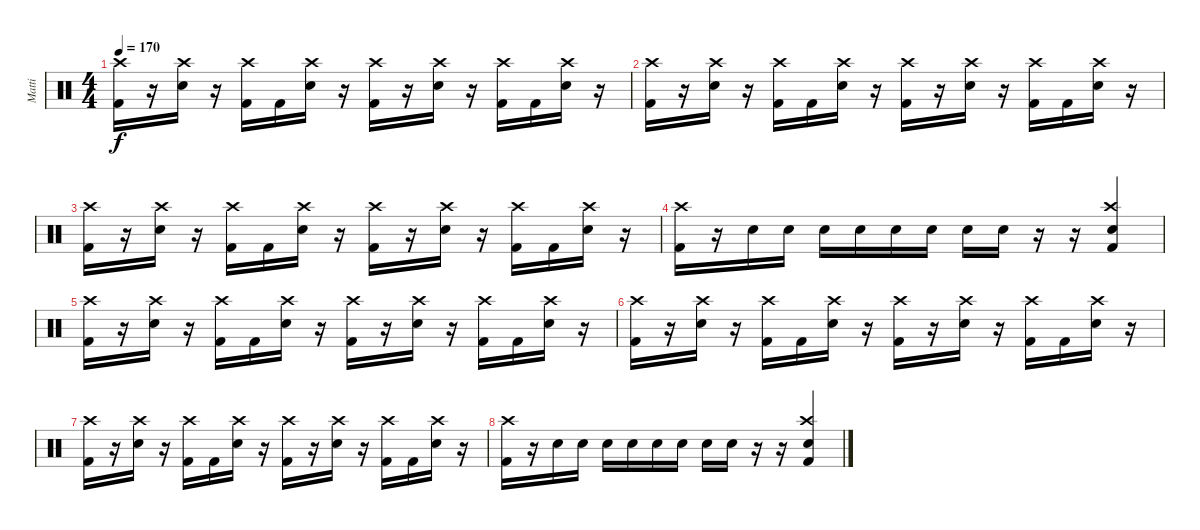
\track ("Matti" "Matti") {instrument percussion}
\staff {score}
\articulation defaults
\ts (4 4)
\tempo 170
\clef neutral
\ks c
("Kick (hit) 2" "Crash high (hit)").16{dy f} r.16 ("Snare (hit) 2" "Crash high (hit)").16 r.16 ("Kick (hit) 2" "Crash high (hit)").16 "Kick (hit) 2".16 ("Snare (hit) 2" "Crash high (hit)").16 r.16 ("Kick (hit) 2" "Crash high (hit)").16 r.16 ("Snare (hit) 2" "Crash high (hit)").16 r.16 ("Kick (hit) 2" "Crash high (hit)").16 "Kick (hit) 2".16 ("Snare (hit) 2" "Crash high (hit)").16 r.16 |
("Kick (hit) 2" "Crash high (hit)").16 r.16 ("Snare (hit) 2" "Crash high (hit)").16 r.16 ("Kick (hit) 2" "Crash high (hit)").16 "Kick (hit) 2".16 ("Snare (hit) 2" "Crash high (hit)").16 r.16 ("Kick (hit) 2" "Crash high (hit)").16 r.16 ("Snare (hit) 2" "Crash high (hit)").16 r.16 ("Kick (hit) 2" "Crash high (hit)").16 "Kick (hit) 2".16 ("Snare (hit) 2" "Crash high (hit)").16 r.16 |
("Kick (hit) 2" "Crash high (hit)").16 r.16 ("Snare (hit) 2" "Crash high (hit)").16 r.16 ("Kick (hit) 2" "Crash high (hit)").16 "Kick (hit) 2".16 ("Snare (hit) 2" "Crash high (hit)").16 r.16 ("Kick (hit) 2" "Crash high (hit)").16 r.16 ("Snare (hit) 2" "Crash high (hit)").16 r.16 ("Kick (hit) 2" "Crash high (hit)").16 "Kick (hit) 2".16 ("Snare (hit) 2" "Crash high (hit)").16 r.16 |
("Kick (hit) 2" "Crash high (hit)").16 r.16 "Snare (hit) 2".16 "Snare (hit) 2".16 "Snare (hit) 2".16 "Snare (hit) 2".16 "Snare (hit) 2".16 "Snare (hit) 2".16 "Snare (hit) 2".16 "Snare (hit) 2".16 r.16 r.16 ("Crash high (hit)" "Kick (hit) 2" "Snare (hit) 2").4 |
("Kick (hit) 2" "Crash high (hit)").16 r.16 ("Snare (hit) 2" "Crash high (hit)").16 r.16 ("Kick (hit) 2" "Crash high (hit)").16 "Kick (hit) 2".16 ("Snare (hit) 2" "Crash high (hit)").16 r.16 ("Kick (hit) 2" "Crash high (hit)").16 r.16 ("Snare (hit) 2" "Crash high (hit)").16 r.16 ("Kick (hit) 2" "Crash high (hit)").16 "Kick (hit) 2".16 ("Snare (hit) 2" "Crash high (hit)").16 r.16 |
("Kick (hit) 2" "Crash high (hit)").16 r.16 ("Snare (hit) 2" "Crash high (hit)").16 r.16 ("Kick (hit) 2" "Crash high (hit)").16 "Kick (hit) 2".16 ("Snare (hit) 2" "Crash high (hit)").16 r.16 ("Kick (hit) 2" "Crash high (hit)").16 r.16 ("Snare (hit) 2" "Crash high (hit)").16 r.16 ("Kick (hit) 2" "Crash high (hit)").16 "Kick (hit) 2".16 ("Snare (hit) 2" "Crash high (hit)").16 r.16 |
("Kick (hit) 2" "Crash high (hit)").16 r.16 ("Snare (hit) 2" "Crash high (hit)").16 r.16 ("Kick (hit) 2" "Crash high (hit)").16 "Kick (hit) 2".16 ("Snare (hit) 2" "Crash high (hit)").16 r.16 ("Kick (hit) 2" "Crash high (hit)").16 r.16 ("Snare (hit) 2" "Crash high (hit)").16 r.16 ("Kick (hit) 2" "Crash high (hit)").16 "Kick (hit) 2".16 ("Snare (hit) 2" "Crash high (hit)").16 r.16 |
("Kick (hit) 2" "Crash high (hit)").16 r.16 "Snare (hit) 2".16 "Snare (hit) 2".16 "Snare (hit) 2".16 "Snare (hit) 2".16 "Snare (hit) 2".16 "Snare (hit) 2".16 "Snare (hit) 2".16 "Snare (hit) 2".16 r.16 r.16 ("Crash high (hit)" "Kick (hit) 2" "Snare (hit) 2").4
